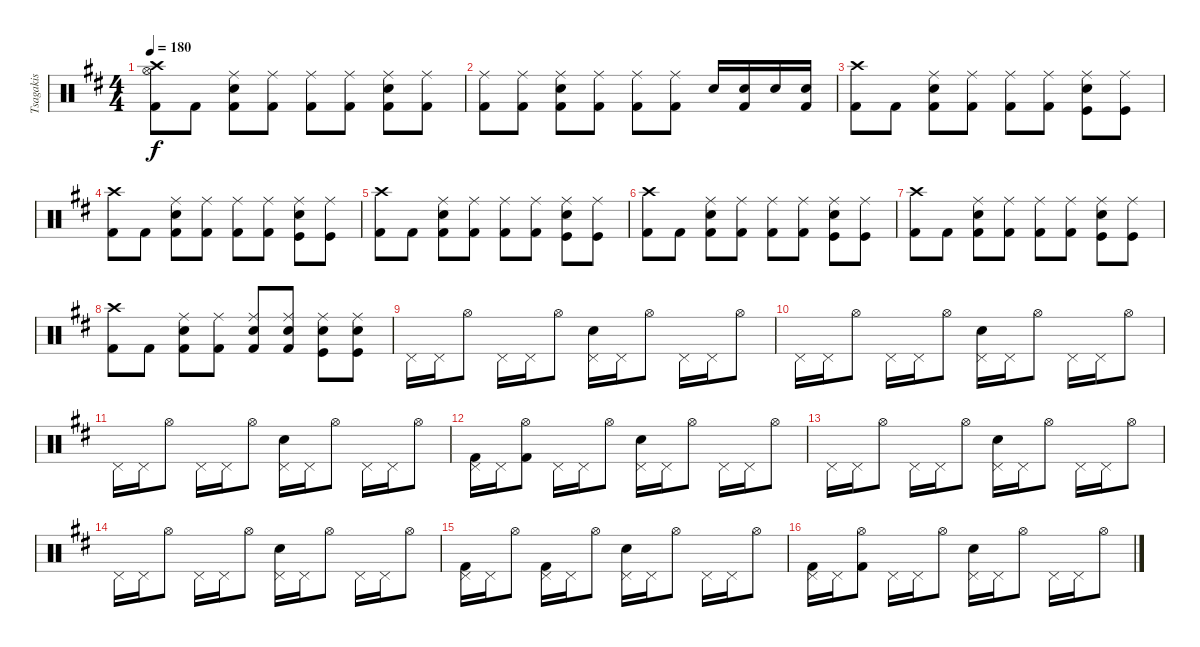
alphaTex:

\track ("Tsagakis" "Tsagakis") {instrument percussion}
\staff {score}
\articulation defaults
\ts (4 4)
\tempo 180
\clef neutral
\ks d
("Crash high (hit)" "Hi-Hat (open)" "Kick (hit) 2").8{dy f} "Kick (hit) 2".8 ("Ride (middle)" "Electric Snare (hit)" "Kick (hit) 2").8 ("Ride (middle)" "Kick (hit) 2").8 ("Ride (middle)" "Kick (hit) 2").8 ("Ride (middle)" "Kick (hit) 2").8 ("Ride (middle)" "Electric Snare (hit)" "Kick (hit) 2").8 ("Ride (middle)" "Kick (hit) 2").8 |
("Ride (middle)" "Kick (hit) 2").8 ("Ride (middle)" "Kick (hit) 2").8 ("Ride (middle)" "Electric Snare (hit)" "Kick (hit) 2").8 ("Ride (middle)" "Kick (hit) 2").8 ("Ride (middle)" "Kick (hit) 2").8 ("Ride (middle)" "Kick (hit) 2").8 "Electric Snare (hit)".16 ("Electric Snare (hit)" "Kick (hit) 2").16 "Electric Snare (hit)".16 ("Electric Snare (hit)" "Kick (hit) 2").16 |
("Crash high (hit)" "Kick (hit) 2").8 "Kick (hit) 2".8 ("Ride (middle)" "Electric Snare (hit)" "Kick (hit) 2").8 ("Ride (middle)" "Kick (hit) 2").8 ("Ride (middle)" "Kick (hit) 2").8 ("Ride (middle)" "Kick (hit) 2").8 ("Ride (middle)" "Electric Snare (hit)" "Kick (hit)").8 ("Ride (middle)" "Kick (hit)").8 |
("Crash high (hit)" "Kick (hit) 2").8 "Kick (hit) 2".8 ("Ride (middle)" "Electric Snare (hit)" "Kick (hit) 2").8 ("Ride (middle)" "Kick (hit) 2").8 ("Ride (middle)" "Kick (hit) 2").8 ("Ride (middle)" "Kick (hit) 2").8 ("Ride (middle)" "Electric Snare (hit)" "Kick (hit)").8 ("Ride (middle)" "Kick (hit)").8 |
("Crash high (hit)" "Kick (hit) 2").8 "Kick (hit) 2".8 ("Ride (middle)" "Electric Snare (hit)" "Kick (hit) 2").8 ("Ride (middle)" "Kick (hit) 2").8 ("Ride (middle)" "Kick (hit) 2").8 ("Ride (middle)" "Kick (hit) 2").8 ("Ride (middle)" "Electric Snare (hit)" "Kick (hit)").8 ("Ride (middle)" "Kick (hit)").8 |
("Crash high (hit)" "Kick (hit) 2").8 "Kick (hit) 2".8 ("Ride (middle)" "Electric Snare (hit)" "Kick (hit) 2").8 ("Ride (middle)" "Kick (hit) 2").8 ("Ride (middle)" "Kick (hit) 2").8 ("Ride (middle)" "Kick (hit) 2").8 ("Ride (middle)" "Electric Snare (hit)" "Kick (hit)").8 ("Ride (middle)" "Kick (hit)").8 |
("Crash high (hit)" "Kick (hit) 2").8 "Kick (hit) 2".8 ("Ride (middle)" "Electric Snare (hit)" "Kick (hit) 2").8 ("Ride (middle)" "Kick (hit) 2").8 ("Ride (middle)" "Kick (hit) 2").8 ("Ride (middle)" "Kick (hit) 2").8 ("Ride (middle)" "Electric Snare (hit)" "Kick (hit)").8 ("Ride (middle)" "Kick (hit)").8 |
("Crash high (hit)" "Kick (hit) 2").8 "Kick (hit) 2".8 ("Ride (middle)" "Electric Snare (hit)" "Kick (hit) 2").8 ("Ride (middle)" "Kick (hit) 2").8 ("Ride (middle)" "Electric Snare (hit)" "Kick (hit) 2").8 ("Ride (middle)" "Electric Snare (hit)" "Kick (hit) 2").8 ("Ride (middle)" "Electric Snare (hit)" "Kick (hit)").8 ("Ride (middle)" "Electric Snare (hit)" "Kick (hit)").8 |
"Pedal Hi-Hat (hit)".16 "Pedal Hi-Hat (hit)".16 "Hi-Hat (open)".8 "Pedal Hi-Hat (hit)".16 "Pedal Hi-Hat (hit)".16 "Hi-Hat (open)".8 ("Pedal Hi-Hat (hit)" "Electric Snare (hit)").16 "Pedal Hi-Hat (hit)".16 "Hi-Hat (open)".8 "Pedal Hi-Hat (hit)".16 "Pedal Hi-Hat (hit)".16 "Hi-Hat (open)".8 |
"Pedal Hi-Hat (hit)".16 "Pedal Hi-Hat (hit)".16 "Hi-Hat (open)".8 "Pedal Hi-Hat (hit)".16 "Pedal Hi-Hat (hit)".16 "Hi-Hat (open)".8 ("Pedal Hi-Hat (hit)" "Electric Snare (hit)").16 "Pedal Hi-Hat (hit)".16 "Hi-Hat (open)".8 "Pedal Hi-Hat (hit)".16 "Pedal Hi-Hat (hit)".16 "Hi-Hat (open)".8 |
"Pedal Hi-Hat (hit)".16 "Pedal Hi-Hat (hit)".16 "Hi-Hat (open)".8 "Pedal Hi-Hat (hit)".16 "Pedal Hi-Hat (hit)".16 "Hi-Hat (open)".8 ("Pedal Hi-Hat (hit)" "Electric Snare (hit)").16 "Pedal Hi-Hat (hit)".16 "Hi-Hat (open)".8 "Pedal Hi-Hat (hit)".16 "Pedal Hi-Hat (hit)".16 "Hi-Hat (open)".8 |
("Pedal Hi-Hat (hit)" "Kick (hit) 2").16 "Pedal Hi-Hat (hit)".16 ("Hi-Hat (open)" "Kick (hit) 2").8 "Pedal Hi-Hat (hit)".16 "Pedal Hi-Hat (hit)".16 "Hi-Hat (open)".8 ("Pedal Hi-Hat (hit)" "Electric Snare (hit)").16 "Pedal Hi-Hat (hit)".16 "Hi-Hat (open)".8 "Pedal Hi-Hat (hit)".16 "Pedal Hi-Hat (hit)".16 "Hi-Hat (open)".8 |
"Pedal Hi-Hat (hit)".16 "Pedal Hi-Hat (hit)".16 "Hi-Hat (open)".8 "Pedal Hi-Hat (hit)".16 "Pedal Hi-Hat (hit)".16 "Hi-Hat (open)".8 ("Pedal Hi-Hat (hit)" "Electric Snare (hit)").16 "Pedal Hi-Hat (hit)".16 "Hi-Hat (open)".8 "Pedal Hi-Hat (hit)".16 "Pedal Hi-Hat (hit)".16 "Hi-Hat (open)".8 |
"Pedal Hi-Hat (hit)".16 "Pedal Hi-Hat (hit)".16 "Hi-Hat (open)".8 "Pedal Hi-Hat (hit)".16 "Pedal Hi-Hat (hit)".16 "Hi-Hat (open)".8 ("Pedal Hi-Hat (hit)" "Electric Snare (hit)").16 "Pedal Hi-Hat (hit)".16 "Hi-Hat (open)".8 "Pedal Hi-Hat (hit)".16 "Pedal Hi-Hat (hit)".16 "Hi-Hat (open)".8 |
("Pedal Hi-Hat (hit)" "Kick (hit) 2").16 "Pedal Hi-Hat (hit)".16 "Hi-Hat (open)".8 ("Pedal Hi-Hat (hit)" "Kick (hit) 2").16 "Pedal Hi-Hat (hit)".16 "Hi-Hat (open)".8 ("Pedal Hi-Hat (hit)" "Electric Snare (hit)").16 "Pedal Hi-Hat (hit)".16 "Hi-Hat (open)".8 "Pedal Hi-Hat (hit)".16 "Pedal Hi-Hat (hit)".16 "Hi-Hat (open)".8 |
("Pedal Hi-Hat (hit)" "Kick (hit) 2").16 "Pedal Hi-Hat (hit)".16 ("Hi-Hat (open)" "Kick (hit) 2").8 "Pedal Hi-Hat (hit)".16 "Pedal Hi-Hat (hit)".16 "Hi-Hat (open)".8 ("Pedal Hi-Hat (hit)" "Electric Snare (hit)").16 "Pedal Hi-Hat (hit)".16 "Hi-Hat (open)".8 "Pedal Hi-Hat (hit)".16 "Pedal Hi-Hat (hit)".16 "Hi-Hat (open)".8
